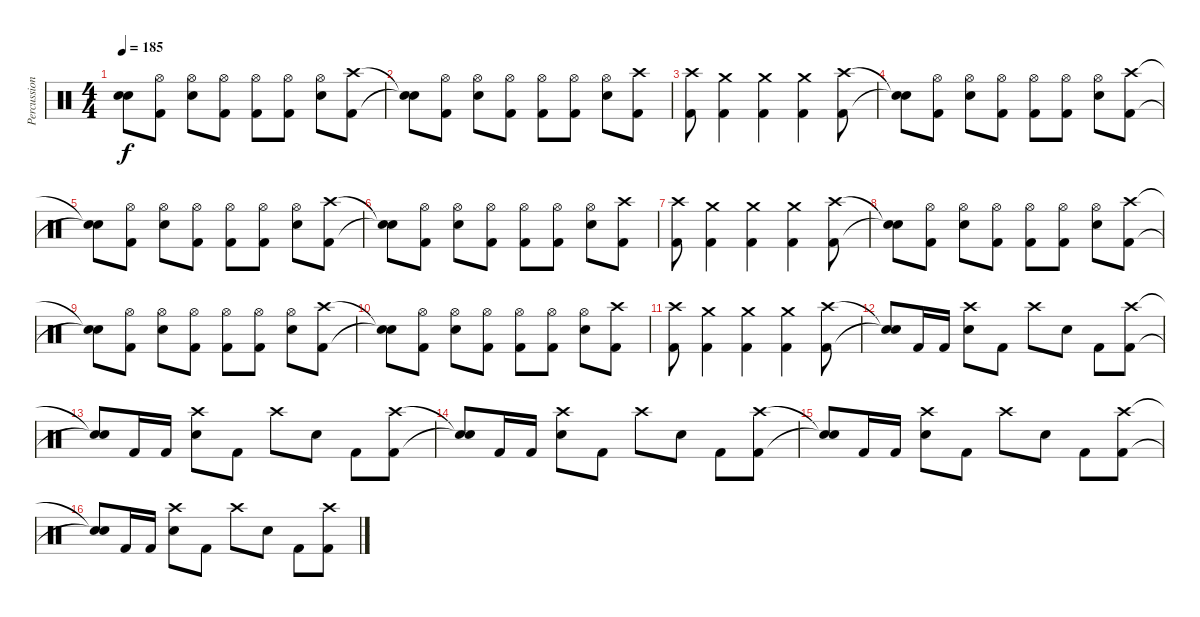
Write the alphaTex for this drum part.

\track ("Percussion" "Percussion") {instrument percussion}
\staff {score}
\articulation defaults
\ts (4 4)
\tempo 185
\clef neutral
\ks c
("Snare (hit)"{t} "Snare (hit)"{t}).8{dy f} ("Hi-Hat (open)" "Kick (hit) 2").8 ("Hi-Hat (open)" "Electric Snare (hit)").8 ("Hi-Hat (open)" "Kick (hit) 2").8 ("Hi-Hat (open)" "Kick (hit) 2").8 ("Hi-Hat (open)" "Kick (hit) 2").8 ("Hi-Hat (open)" "Electric Snare (hit)").8 ("Crash high (hit)" "Kick (hit) 2").8 |
("Snare (hit)"{t} "Snare (hit)"{t}).8 ("Hi-Hat (open)" "Kick (hit) 2").8 ("Hi-Hat (open)" "Electric Snare (hit)").8 ("Hi-Hat (open)" "Kick (hit) 2").8 ("Hi-Hat (open)" "Kick (hit) 2").8 ("Hi-Hat (open)" "Kick (hit) 2").8 ("Hi-Hat (open)" "Electric Snare (hit)").8 ("Crash high (hit)" "Kick (hit) 2").8 |
("Crash high (hit)" "Kick (hit) 2").8 ("Crash medium (hit)" "Kick (hit) 2").4 ("Crash medium (hit)" "Kick (hit) 2").4 ("Crash medium (hit)" "Kick (hit) 2").4 ("Crash high (hit)" "Kick (hit) 2").8 |
("Snare (hit)"{t} "Snare (hit)"{t}).8 ("Hi-Hat (open)" "Kick (hit) 2").8 ("Hi-Hat (open)" "Electric Snare (hit)").8 ("Hi-Hat (open)" "Kick (hit) 2").8 ("Hi-Hat (open)" "Kick (hit) 2").8 ("Hi-Hat (open)" "Kick (hit) 2").8 ("Hi-Hat (open)" "Electric Snare (hit)").8 ("Crash high (hit)" "Kick (hit) 2").8 |
("Snare (hit)"{t} "Snare (hit)"{t}).8 ("Hi-Hat (open)" "Kick (hit) 2").8 ("Hi-Hat (open)" "Electric Snare (hit)").8 ("Hi-Hat (open)" "Kick (hit) 2").8 ("Hi-Hat (open)" "Kick (hit) 2").8 ("Hi-Hat (open)" "Kick (hit) 2").8 ("Hi-Hat (open)" "Electric Snare (hit)").8 ("Crash high (hit)" "Kick (hit) 2").8 |
("Snare (hit)"{t} "Snare (hit)"{t}).8 ("Hi-Hat (open)" "Kick (hit) 2").8 ("Hi-Hat (open)" "Electric Snare (hit)").8 ("Hi-Hat (open)" "Kick (hit) 2").8 ("Hi-Hat (open)" "Kick (hit) 2").8 ("Hi-Hat (open)" "Kick (hit) 2").8 ("Hi-Hat (open)" "Electric Snare (hit)").8 ("Crash high (hit)" "Kick (hit) 2").8 |
("Crash high (hit)" "Kick (hit) 2").8 ("Crash medium (hit)" "Kick (hit) 2").4 ("Crash medium (hit)" "Kick (hit) 2").4 ("Crash medium (hit)" "Kick (hit) 2").4 ("Crash high (hit)" "Kick (hit) 2").8 |
("Snare (hit)"{t} "Snare (hit)"{t}).8 ("Hi-Hat (open)" "Kick (hit) 2").8 ("Hi-Hat (open)" "Electric Snare (hit)").8 ("Hi-Hat (open)" "Kick (hit) 2").8 ("Hi-Hat (open)" "Kick (hit) 2").8 ("Hi-Hat (open)" "Kick (hit) 2").8 ("Hi-Hat (open)" "Electric Snare (hit)").8 ("Crash high (hit)" "Kick (hit) 2").8 |
("Snare (hit)"{t} "Snare (hit)"{t}).8 ("Hi-Hat (open)" "Kick (hit) 2").8 ("Hi-Hat (open)" "Electric Snare (hit)").8 ("Hi-Hat (open)" "Kick (hit) 2").8 ("Hi-Hat (open)" "Kick (hit) 2").8 ("Hi-Hat (open)" "Kick (hit) 2").8 ("Hi-Hat (open)" "Electric Snare (hit)").8 ("Crash high (hit)" "Kick (hit) 2").8 |
("Snare (hit)"{t} "Snare (hit)"{t}).8 ("Hi-Hat (open)" "Kick (hit) 2").8 ("Hi-Hat (open)" "Electric Snare (hit)").8 ("Hi-Hat (open)" "Kick (hit) 2").8 ("Hi-Hat (open)" "Kick (hit) 2").8 ("Hi-Hat (open)" "Kick (hit) 2").8 ("Hi-Hat (open)" "Electric Snare (hit)").8 ("Crash high (hit)" "Kick (hit) 2").8 |
("Crash high (hit)" "Kick (hit) 2").8 ("Crash medium (hit)" "Kick (hit) 2").4 ("Crash medium (hit)" "Kick (hit) 2").4 ("Crash medium (hit)" "Kick (hit) 2").4 ("Crash high (hit)" "Kick (hit) 2").8 |
("Snare (hit)"{t} "Snare (hit)"{t}).8 "Kick (hit) 2".16 "Kick (hit) 2".16 ("Crash high (hit)" "Electric Snare (hit)").8 "Kick (hit) 2".8 "Crash high (hit)".8 "Electric Snare (hit)".8 "Kick (hit) 2".8 ("Crash high (hit)" "Kick (hit) 2").8 |
("Snare (hit)"{t} "Snare (hit)"{t}).8 "Kick (hit) 2".16 "Kick (hit) 2".16 ("Crash high (hit)" "Electric Snare (hit)").8 "Kick (hit) 2".8 "Crash high (hit)".8 "Electric Snare (hit)".8 "Kick (hit) 2".8 ("Crash high (hit)" "Kick (hit) 2").8 |
("Snare (hit)"{t} "Snare (hit)"{t}).8 "Kick (hit) 2".16 "Kick (hit) 2".16 ("Crash high (hit)" "Electric Snare (hit)").8 "Kick (hit) 2".8 "Crash high (hit)".8 "Electric Snare (hit)".8 "Kick (hit) 2".8 ("Crash high (hit)" "Kick (hit) 2").8 |
("Snare (hit)"{t} "Snare (hit)"{t}).8 "Kick (hit) 2".16 "Kick (hit) 2".16 ("Crash high (hit)" "Electric Snare (hit)").8 "Kick (hit) 2".8 "Crash high (hit)".8 "Electric Snare (hit)".8 "Kick (hit) 2".8 ("Crash high (hit)" "Kick (hit) 2").8 |
("Snare (hit)"{t} "Snare (hit)"{t}).8 "Kick (hit) 2".16 "Kick (hit) 2".16 ("Crash high (hit)" "Electric Snare (hit)").8 "Kick (hit) 2".8 "Crash high (hit)".8 "Electric Snare (hit)".8 "Kick (hit) 2".8 ("Crash high (hit)" "Kick (hit) 2").8
